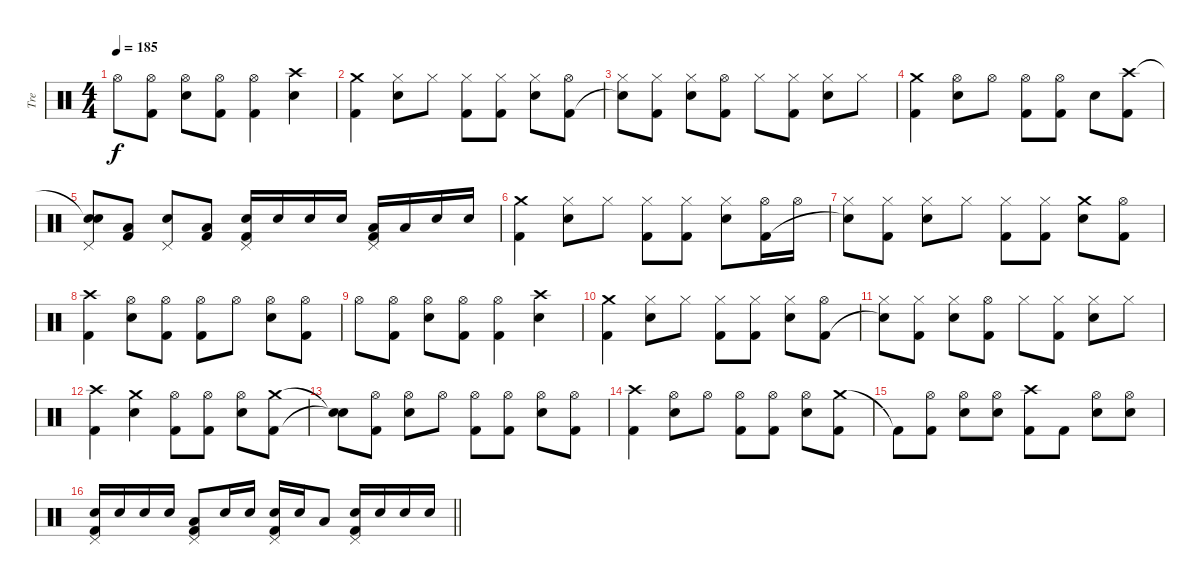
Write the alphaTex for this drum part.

\track ("Tre" "Tre") {instrument percussion}
\staff {score}
\articulation defaults
\ts (4 4)
\tempo 185
\clef neutral
\ks c "Hi-Hat (open)".8{dy f}
("Hi-Hat (open)" "Kick (hit) 2").8 ("Hi-Hat (open)" "Snare (hit) 2").8 ("Hi-Hat (open)" "Kick (hit) 2").8 ("Hi-Hat (open)" "Kick (hit) 2").4 ("Crash high (hit)" "Snare (hit) 2").4 |
("Crash medium (hit)" "Kick (hit) 2").4 ("Hi-Hat (closed)" "Snare (hit) 2").8 "Hi-Hat (closed)".8 ("Hi-Hat (closed)" "Kick (hit) 2").8 ("Hi-Hat (closed)" "Kick (hit) 2").8 ("Hi-Hat (closed)" "Snare (hit) 2").8 ("Hi-Hat (open)" "Kick (hit) 2").8 |
("Hi-Hat (closed)" "Snare (hit)"{t}).8 ("Hi-Hat (closed)" "Kick (hit) 2").8 ("Hi-Hat (closed)" "Snare (hit) 2").8 ("Hi-Hat (open)" "Kick (hit) 2").8 "Hi-Hat (closed)".8 ("Hi-Hat (closed)" "Kick (hit) 2").8 ("Hi-Hat (closed)" "Snare (hit) 2").8 "Hi-Hat (closed)".8 |
("Crash medium (hit)" "Kick (hit) 2").4 ("Hi-Hat (open)" "Snare (hit) 2").8 "Hi-Hat (open)".8 ("Hi-Hat (open)" "Kick (hit) 2").8 ("Hi-Hat (open)" "Kick (hit) 2").8 "Snare (hit) 2".8 ("Crash high (hit)" "Kick (hit) 2").8 |
("Snare (hit)"{t} "Pedal Hi-Hat (hit)" "Snare (hit)").8 ("Low Tom (hit)" "Kick (hit) 2").8 ("Snare (hit) 2" "Pedal Hi-Hat (hit)").8 ("Low Tom (hit)" "Kick (hit) 2").8 ("Snare (hit) 2" "Pedal Hi-Hat (hit)" "Kick (hit) 2").16 "Snare (hit) 2".16 "Snare (hit) 2".16 "Snare (hit) 2".16 ("Low Tom (hit)" "Pedal Hi-Hat (hit)" "Kick (hit) 2").16 "Low Tom (hit)".16 "Snare (hit) 2".16 "Snare (hit) 2".16 |
("Crash medium (hit)" "Kick (hit) 2").4 ("Hi-Hat (closed)" "Snare (hit) 2").8 "Hi-Hat (closed)".8 ("Hi-Hat (closed)" "Kick (hit) 2").8 ("Hi-Hat (closed)" "Kick (hit) 2").8 ("Hi-Hat (closed)" "Snare (hit) 2").8 ("Hi-Hat (open)" "Kick (hit) 2").16 "Hi-Hat (open)".16 |
("Hi-Hat (closed)" "Snare (hit)"{t}).8 ("Hi-Hat (closed)" "Kick (hit) 2").8 ("Hi-Hat (closed)" "Snare (hit) 2").8 "Hi-Hat (closed)".8 ("Hi-Hat (closed)" "Kick (hit) 2").8 ("Hi-Hat (closed)" "Kick (hit) 2").8 ("Crash medium (hit)" "Snare (hit) 2").8 ("Hi-Hat (open)" "Kick (hit) 2").8 |
("Crash high (hit)" "Kick (hit) 2").4 ("Hi-Hat (open)" "Snare (hit) 2").8 ("Hi-Hat (open)" "Kick (hit) 2").8 ("Hi-Hat (open)" "Kick (hit) 2").8 "Hi-Hat (open)".8 ("Hi-Hat (open)" "Snare (hit) 2").8 ("Hi-Hat (open)" "Kick (hit) 2").8 |
"Hi-Hat (open)".8 ("Hi-Hat (open)" "Kick (hit) 2").8 ("Hi-Hat (open)" "Snare (hit) 2").8 ("Hi-Hat (open)" "Kick (hit) 2").8 ("Hi-Hat (open)" "Kick (hit) 2").4 ("Crash high (hit)" "Snare (hit) 2").4 |
("Crash medium (hit)" "Kick (hit) 2").4 ("Hi-Hat (closed)" "Snare (hit) 2").8 "Hi-Hat (closed)".8 ("Hi-Hat (closed)" "Kick (hit) 2").8 ("Hi-Hat (closed)" "Kick (hit) 2").8 ("Hi-Hat (closed)" "Snare (hit) 2").8 ("Hi-Hat (open)" "Kick (hit) 2").8 |
("Hi-Hat (closed)" "Snare (hit)"{t}).8 ("Hi-Hat (closed)" "Kick (hit) 2").8 ("Hi-Hat (closed)" "Snare (hit) 2").8 ("Hi-Hat (open)" "Kick (hit) 2").8 "Hi-Hat (closed)".8 ("Hi-Hat (closed)" "Kick (hit) 2").8 ("Hi-Hat (closed)" "Snare (hit) 2").8 "Hi-Hat (closed)".8 |
("Crash high (hit)" "Kick (hit) 2").4 ("Crash medium (hit)" "Snare (hit) 2").4 ("Hi-Hat (open)" "Kick (hit) 2").8 ("Hi-Hat (open)" "Kick (hit) 2").8 ("Hi-Hat (open)" "Snare (hit) 2").8 ("Crash medium (hit)" "Kick (hit) 2").8 |
("Snare (hit)"{t} "Snare (hit)"{t}).8 ("Hi-Hat (open)" "Kick (hit) 2").8 ("Hi-Hat (open)" "Snare (hit) 2").8 "Hi-Hat (open)".8 ("Hi-Hat (open)" "Kick (hit) 2").8 ("Hi-Hat (open)" "Kick (hit) 2").8 ("Hi-Hat (open)" "Snare (hit) 2").8 ("Hi-Hat (open)" "Kick (hit) 2").8 |
("Crash high (hit)" "Kick (hit) 2").4 ("Hi-Hat (open)" "Snare (hit) 2").8 "Hi-Hat (open)".8 ("Hi-Hat (open)" "Kick (hit) 2").8 ("Hi-Hat (open)" "Kick (hit) 2").8 ("Hi-Hat (open)" "Snare (hit) 2").8 ("Crash medium (hit)" "Kick (hit) 2").8 |
"Kick (hit) 2"{t}.8 ("Hi-Hat (open)" "Kick (hit) 2").8 ("Hi-Hat (open)" "Snare (hit) 2").8 ("Hi-Hat (open)" "Snare (hit) 2").8 ("Crash high (hit)" "Kick (hit) 2").8 "Kick (hit) 2".8 ("Hi-Hat (open)" "Snare (hit) 2").8 ("Hi-Hat (open)" "Snare (hit) 2").8 |
\barLineRight lightlight
("Snare (hit) 2" "Pedal Hi-Hat (hit)" "Kick (hit) 2").16 "Snare (hit) 2".16 "Snare (hit) 2".16 "Snare (hit) 2".16 ("Low Tom (hit)" "Pedal Hi-Hat (hit)" "Kick (hit) 2").8 "Snare (hit) 2".16 "Snare (hit) 2".16 ("Snare (hit) 2" "Pedal Hi-Hat (hit)" "Kick (hit) 2").16 "Snare (hit) 2".16 "Low Tom (hit)".8 ("Snare (hit) 2" "Pedal Hi-Hat (hit)" "Kick (hit) 2").16 "Snare (hit) 2".16 "Snare (hit) 2".16 "Snare (hit) 2".16
